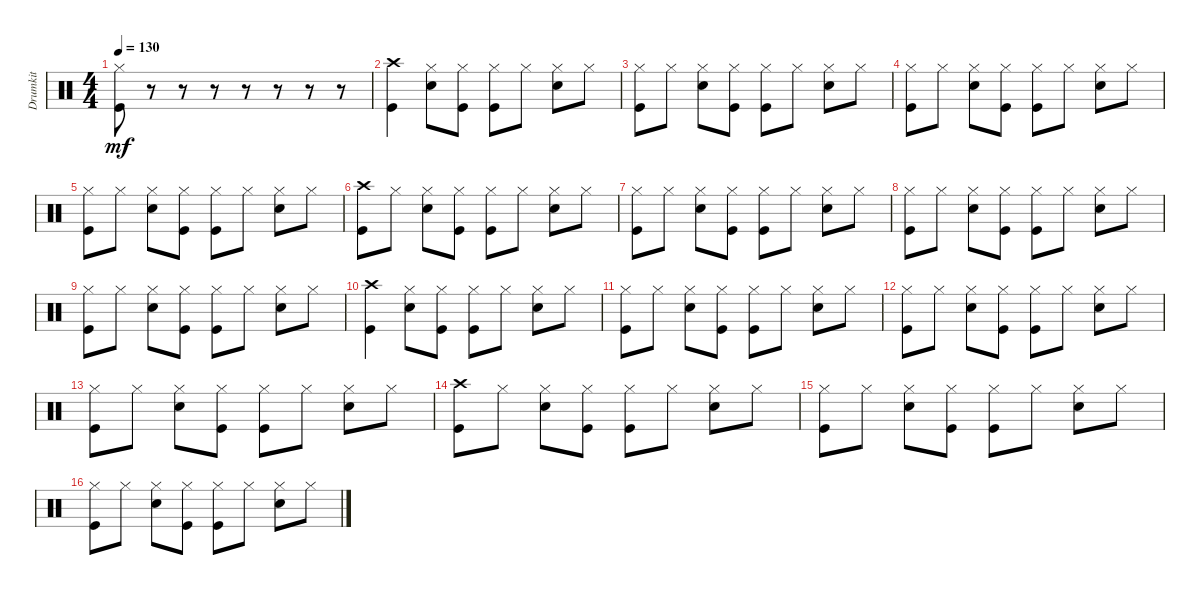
\track ("Drumkit" "Drumkit") {instrument percussion}
\staff {score}
\articulation defaults
\ts (4 4)
\tempo 130
\clef neutral
\ks c
("Kick (hit)" "Hi-Hat (closed)").8{dy mf} r.8 r.8 r.8 r.8 r.8 r.8 r.8 |
("Crash high (hit)" "Kick (hit)").4 ("Snare (hit) 2" "Hi-Hat (closed)").8 ("Kick (hit)" "Hi-Hat (closed)").8 ("Kick (hit)" "Hi-Hat (closed)").8 "Hi-Hat (closed)".8 ("Snare (hit) 2" "Hi-Hat (closed)").8 "Hi-Hat (closed)".8 |
("Kick (hit)" "Hi-Hat (closed)").8 "Hi-Hat (closed)".8 ("Snare (hit) 2" "Hi-Hat (closed)").8 ("Kick (hit)" "Hi-Hat (closed)").8 ("Kick (hit)" "Hi-Hat (closed)").8 "Hi-Hat (closed)".8 ("Snare (hit) 2" "Hi-Hat (closed)").8 "Hi-Hat (closed)".8 |
("Kick (hit)" "Hi-Hat (closed)").8 "Hi-Hat (closed)".8 ("Snare (hit) 2" "Hi-Hat (closed)").8 ("Kick (hit)" "Hi-Hat (closed)").8 ("Kick (hit)" "Hi-Hat (closed)").8 "Hi-Hat (closed)".8 ("Snare (hit) 2" "Hi-Hat (closed)").8 "Hi-Hat (closed)".8 |
("Kick (hit)" "Hi-Hat (closed)").8 "Hi-Hat (closed)".8 ("Snare (hit) 2" "Hi-Hat (closed)").8 ("Kick (hit)" "Hi-Hat (closed)").8 ("Kick (hit)" "Hi-Hat (closed)").8 "Hi-Hat (closed)".8 ("Snare (hit) 2" "Hi-Hat (closed)").8 "Hi-Hat (closed)".8 |
("Kick (hit)" "Crash high (hit)").8 "Hi-Hat (closed)".8 ("Snare (hit) 2" "Hi-Hat (closed)").8 ("Kick (hit)" "Hi-Hat (closed)").8 ("Kick (hit)" "Hi-Hat (closed)").8 "Hi-Hat (closed)".8 ("Snare (hit) 2" "Hi-Hat (closed)").8 "Hi-Hat (closed)".8 |
("Kick (hit)" "Hi-Hat (closed)").8 "Hi-Hat (closed)".8 ("Snare (hit) 2" "Hi-Hat (closed)").8 ("Kick (hit)" "Hi-Hat (closed)").8 ("Kick (hit)" "Hi-Hat (closed)").8 "Hi-Hat (closed)".8 ("Snare (hit) 2" "Hi-Hat (closed)").8 "Hi-Hat (closed)".8 |
("Kick (hit)" "Hi-Hat (closed)").8 "Hi-Hat (closed)".8 ("Snare (hit) 2" "Hi-Hat (closed)").8 ("Kick (hit)" "Hi-Hat (closed)").8 ("Kick (hit)" "Hi-Hat (closed)").8 "Hi-Hat (closed)".8 ("Snare (hit) 2" "Hi-Hat (closed)").8 "Hi-Hat (closed)".8 |
("Kick (hit)" "Hi-Hat (closed)").8 "Hi-Hat (closed)".8 ("Snare (hit) 2" "Hi-Hat (closed)").8 ("Kick (hit)" "Hi-Hat (closed)").8 ("Kick (hit)" "Hi-Hat (closed)").8 "Hi-Hat (closed)".8 ("Snare (hit) 2" "Hi-Hat (closed)").8 "Hi-Hat (closed)".8 |
("Crash high (hit)" "Kick (hit)").4 ("Snare (hit) 2" "Hi-Hat (closed)").8 ("Kick (hit)" "Hi-Hat (closed)").8 ("Kick (hit)" "Hi-Hat (closed)").8 "Hi-Hat (closed)".8 ("Snare (hit) 2" "Hi-Hat (closed)").8 "Hi-Hat (closed)".8 |
("Kick (hit)" "Hi-Hat (closed)").8 "Hi-Hat (closed)".8 ("Snare (hit) 2" "Hi-Hat (closed)").8 ("Kick (hit)" "Hi-Hat (closed)").8 ("Kick (hit)" "Hi-Hat (closed)").8 "Hi-Hat (closed)".8 ("Snare (hit) 2" "Hi-Hat (closed)").8 "Hi-Hat (closed)".8 |
("Kick (hit)" "Hi-Hat (closed)").8 "Hi-Hat (closed)".8 ("Snare (hit) 2" "Hi-Hat (closed)").8 ("Kick (hit)" "Hi-Hat (closed)").8 ("Kick (hit)" "Hi-Hat (closed)").8 "Hi-Hat (closed)".8 ("Snare (hit) 2" "Hi-Hat (closed)").8 "Hi-Hat (closed)".8 |
("Kick (hit)" "Hi-Hat (closed)").8 "Hi-Hat (closed)".8 ("Snare (hit) 2" "Hi-Hat (closed)").8 ("Kick (hit)" "Hi-Hat (closed)").8 ("Kick (hit)" "Hi-Hat (closed)").8 "Hi-Hat (closed)".8 ("Snare (hit) 2" "Hi-Hat (closed)").8 "Hi-Hat (closed)".8 |
("Kick (hit)" "Crash high (hit)").8 "Hi-Hat (closed)".8 ("Snare (hit) 2" "Hi-Hat (closed)").8 ("Kick (hit)" "Hi-Hat (closed)").8 ("Kick (hit)" "Hi-Hat (closed)").8 "Hi-Hat (closed)".8 ("Snare (hit) 2" "Hi-Hat (closed)").8 "Hi-Hat (closed)".8 |
("Kick (hit)" "Hi-Hat (closed)").8 "Hi-Hat (closed)".8 ("Snare (hit) 2" "Hi-Hat (closed)").8 ("Kick (hit)" "Hi-Hat (closed)").8 ("Kick (hit)" "Hi-Hat (closed)").8 "Hi-Hat (closed)".8 ("Snare (hit) 2" "Hi-Hat (closed)").8 "Hi-Hat (closed)".8 |
("Kick (hit)" "Hi-Hat (closed)").8 "Hi-Hat (closed)".8 ("Snare (hit) 2" "Hi-Hat (closed)").8 ("Kick (hit)" "Hi-Hat (closed)").8 ("Kick (hit)" "Hi-Hat (closed)").8 "Hi-Hat (closed)".8 ("Snare (hit) 2" "Hi-Hat (closed)").8 "Hi-Hat (closed)".8
